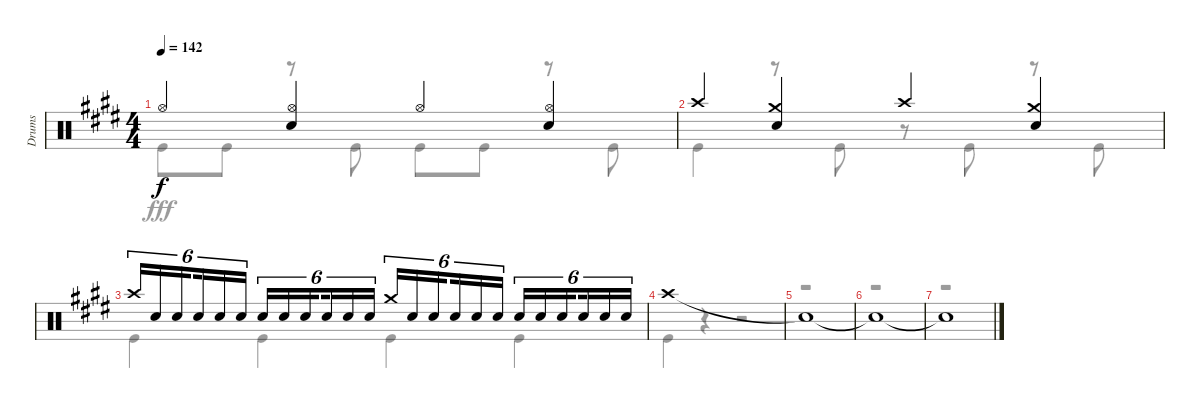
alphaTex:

\track ("Drums" "Drums") {instrument percussion}
\staff {score}
\articulation defaults
\voice
\ts (4 4)
\tempo 142
\clef neutral
\ks e "Hi-Hat (open)".4{dy f}
("Hi-Hat (open)" "Snare (hit) 2").4 "Hi-Hat (open)".4 ("Hi-Hat (open)" "Snare (hit) 2").4 |
"Crash high (hit)".4 ("Crash medium (hit)" "Snare (hit) 2").4 "Crash high (hit)".4 ("Crash medium (hit)" "Snare (hit) 2").4 |
"Crash high (hit)".16{tu (6 4)} "Snare (hit) 2".16{tu (6 4)} "Snare (hit) 2".16{tu (6 4) beam splitsecondary} "Snare (hit) 2".16{tu (6 4)} "Snare (hit) 2".16{tu (6 4)} "Snare (hit) 2".16{tu (6 4)} "Snare (hit) 2".16{tu (6 4)} "Snare (hit) 2".16{tu (6 4)} "Snare (hit) 2".16{tu (6 4) beam splitsecondary} "Snare (hit) 2".16{tu (6 4)} "Snare (hit) 2".16{tu (6 4)} "Snare (hit) 2".16{tu (6 4)} "Crash medium (hit)".16{tu (6 4)} "Snare (hit) 2".16{tu (6 4)} "Snare (hit) 2".16{tu (6 4) beam splitsecondary} "Snare (hit) 2".16{tu (6 4)} "Snare (hit) 2".16{tu (6 4)} "Snare (hit) 2".16{tu (6 4)} "Snare (hit) 2".16{tu (6 4)} "Snare (hit) 2".16{tu (6 4)} "Snare (hit) 2".16{tu (6 4) beam splitsecondary} "Snare (hit) 2".16{tu (6 4)} "Snare (hit) 2".16{tu (6 4)} "Snare (hit) 2".16{tu (6 4)} |
"Crash high (hit)".1 |
"Snare (hit)"{t}.1 |
"Snare (hit)"{t}.1 |
"Snare (hit)"{t}.1
\voice
\clef neutral
\ottava regular
\simile none
\ks e "Kick (hit)".8{dy fff} "Kick (hit)".8
r.8 "Kick (hit)".8 "Kick (hit)".8 "Kick (hit)".8 r.8 "Kick (hit)".8 |
"Kick (hit)".4 r.8 "Kick (hit)".8 r.8 "Kick (hit)".8 r.8 "Kick (hit)".8 |
"Kick (hit)".4 "Kick (hit)".4 "Kick (hit)".4 "Kick (hit)".4 |
"Kick (hit)".4 r.4 r.2 |
r.1 |
r.1 |
r.1
